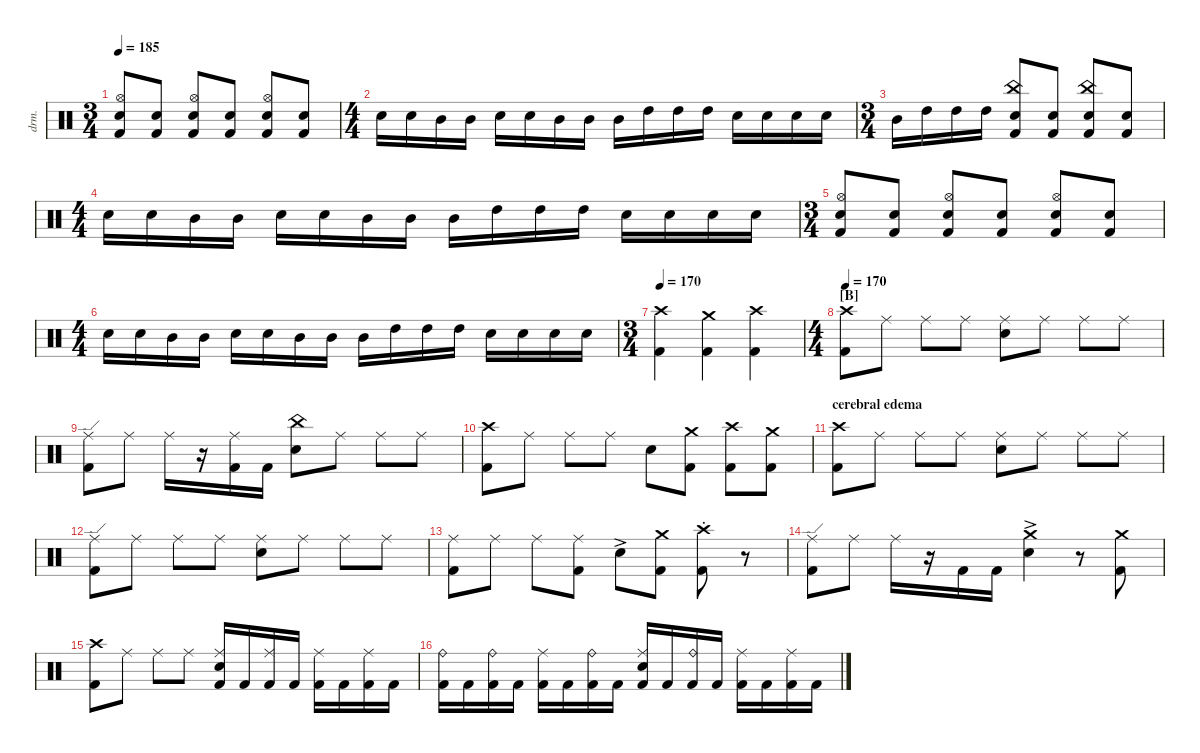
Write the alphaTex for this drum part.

\defaultSystemsLayout 4
\hideDynamics
\bracketExtendMode nobrackets
\otherSystemsTrackNameOrientation horizontal
\track ("Drumkit" "drm.") {instrument percussion}
\staff {score}
\articulation defaults
\ts (3 4)
\beaming (8 2 2 2)
\tempo 185
\clef neutral
\ks c
("Kick (hit) 2" "Hi-Hat (open)" "Snare (hit) 2").8{dy mf beam Up} ("Kick (hit) 2" "Snare (hit) 2").8{beam Up} ("Kick (hit) 2" "Hi-Hat (open)" "Snare (hit) 2").8{beam Up} ("Kick (hit) 2" "Snare (hit) 2").8{beam Up} ("Kick (hit) 2" "Hi-Hat (open)" "Snare (hit) 2").8{beam Up} ("Kick (hit) 2" "Snare (hit) 2").8{beam Up} |
\ts (4 4)
\beaming (8 2 2 2 2)
"Snare (hit) 2".16{beam Down} "Snare (hit) 2".16{beam Down} "Mid Tom (hit)".16{beam Down} "Mid Tom (hit)".16{beam Down} "Snare (hit) 2".16{beam Down} "Snare (hit) 2".16{beam Down} "Mid Tom (hit)".16{beam Down} "Mid Tom (hit)".16{beam Down} "Mid Tom (hit)".16{beam Down} "High Tom (hit)".16{beam Down} "High Tom (hit)".16{beam Down} "High Tom (hit)".16{beam Down} "Snare (hit) 2".16{beam Down} "Snare (hit) 2".16{beam Down} "Snare (hit) 2".16{beam Down} "Snare (hit) 2".16{beam Down} |
\ts (3 4)
\beaming (8 2 2 2)
"Mid Tom (hit)".16{beam Down} "High Tom (hit)".16{beam Down} "High Tom (hit)".16{beam Down} "High Tom (hit)".16{beam Down} ("Kick (hit) 2" "Snare (hit) 2" "China (hit)").8{beam Up} ("Kick (hit) 2" "Snare (hit) 2").8{beam Up} ("Kick (hit) 2" "Snare (hit) 2" "China (hit)").8{beam Up} ("Kick (hit) 2" "Snare (hit) 2").8{beam Up} |
\ts (4 4)
\beaming (8 2 2 2 2)
"Snare (hit) 2".16{beam Down} "Snare (hit) 2".16{beam Down} "Mid Tom (hit)".16{beam Down} "Mid Tom (hit)".16{beam Down} "Snare (hit) 2".16{beam Down} "Snare (hit) 2".16{beam Down} "Mid Tom (hit)".16{beam Down} "Mid Tom (hit)".16{beam Down} "Mid Tom (hit)".16{beam Down} "High Tom (hit)".16{beam Down} "High Tom (hit)".16{beam Down} "High Tom (hit)".16{beam Down} "Snare (hit) 2".16{beam Down} "Snare (hit) 2".16{beam Down} "Snare (hit) 2".16{beam Down} "Snare (hit) 2".16{beam Down} |
\ts (3 4)
\beaming (8 2 2 2)
("Kick (hit) 2" "Hi-Hat (open)" "Snare (hit) 2").8{beam Up} ("Kick (hit) 2" "Snare (hit) 2").8{beam Up} ("Kick (hit) 2" "Hi-Hat (open)" "Snare (hit) 2").8{beam Up} ("Kick (hit) 2" "Snare (hit) 2").8{beam Up} ("Kick (hit) 2" "Hi-Hat (open)" "Snare (hit) 2").8{beam Up} ("Kick (hit) 2" "Snare (hit) 2").8{beam Up} |
\ts (4 4)
\beaming (8 2 2 2 2)
"Snare (hit) 2".16{beam Down} "Snare (hit) 2".16{beam Down} "Mid Tom (hit)".16{beam Down} "Mid Tom (hit)".16{beam Down} "Snare (hit) 2".16{beam Down} "Snare (hit) 2".16{beam Down} "Mid Tom (hit)".16{beam Down} "Mid Tom (hit)".16{beam Down} "Mid Tom (hit)".16{beam Down} "High Tom (hit)".16{beam Down} "High Tom (hit)".16{beam Down} "High Tom (hit)".16{beam Down} "Snare (hit) 2".16{beam Down} "Snare (hit) 2".16{beam Down} "Snare (hit) 2".16{beam Down} "Snare (hit) 2".16{beam Down} |
\ts (3 4)
\beaming (8 2 2 2)
\tempo 170
("Kick (hit) 2" "Crash high (hit)").4{beam Down} ("Kick (hit) 2" "Crash medium (hit)").4{beam Down} ("Kick (hit) 2" "Crash high (hit)").4{beam Down} |
\ts (4 4)
\beaming (8 2 2 2 2)
\section ("B" "")
\tempo 170
("Kick (hit) 2" "Crash high (hit)").8{beam Down} "Ride (middle)".8{beam Down} "Ride (middle)".8{beam Down} "Ride (middle)".8{beam Down} ("Snare (hit) 2" "Ride (middle)").8{beam Down} "Ride (middle)".8{beam Down} "Ride (middle)".8{beam Down} "Ride (middle)".8{beam Down} |
("Kick (hit) 2" "Ride (edge)").8{beam Down} "Ride (middle)".8{beam Down} "Ride (middle)".16{beam Down} r.16{beam Down} ("Kick (hit) 2" "Ride (middle)").16{beam Down} "Kick (hit) 2".16{beam Down} ("Snare (hit) 2" "China (hit)").8{beam Down} "Ride (middle)".8{beam Down} "Ride (middle)".8{beam Down} "Ride (middle)".8{beam Down} |
("Kick (hit) 2" "Crash high (hit)").8{beam Down} "Ride (middle)".8{beam Down} "Ride (middle)".8{beam Down} "Ride (middle)".8{beam Down} "Snare (hit) 2".8{beam Down} ("Kick (hit) 2" "Crash medium (hit)").8{beam Down} ("Kick (hit) 2" "Crash high (hit)").8{beam Down} ("Kick (hit) 2" "Crash medium (hit)").8{beam Down} |
\section ("" "cerebral edema")
("Kick (hit) 2" "Crash high (hit)").8{beam Down} "Ride (middle)".8{beam Down} "Ride (middle)".8{beam Down} "Ride (middle)".8{beam Down} ("Snare (hit) 2" "Ride (middle)").8{beam Down} "Ride (middle)".8{beam Down} "Ride (middle)".8{beam Down} "Ride (middle)".8{beam Down} |
("Kick (hit) 2" "Ride (edge)").8{beam Down} "Ride (middle)".8{beam Down} "Ride (middle)".8{beam Down} "Ride (middle)".8{beam Down} ("Snare (hit) 2" "Ride (middle)").8{beam Down} "Ride (middle)".8{beam Down} "Ride (middle)".8{beam Down} "Ride (middle)".8{beam Down} |
("Kick (hit) 2" "Ride (middle)").8{beam Down} "Ride (middle)".8{beam Down} "Ride (middle)".8{beam Down} ("Ride (middle)" "Kick (hit) 2").8{beam Down} "Snare (hit) 2"{ac}.8{beam Down} ("Kick (hit) 2" "Crash medium (hit)").8{beam Down} ("Kick (hit) 2" "Crash high (choke)").8{beam Down} r.8{beam Down} |
("Kick (hit) 2" "Ride (edge)").8{beam Down} "Ride (middle)".8{beam Down} "Ride (middle)".16{beam Down} r.16{beam Down} "Kick (hit) 2".16{beam Down} "Kick (hit) 2".16{beam Down} ("Crash medium (hit)" "Snare (hit) 2"{ac}).4{beam Down} r.8{beam Down} ("Kick (hit) 2" "Crash medium (hit)").8{beam Down} |
("Kick (hit) 2" "Crash high (hit)").8{beam Down} "Ride (middle)".8{beam Down} "Ride (middle)".8{beam Down} "Ride (middle)".8{beam Down} ("Kick (hit) 2" "Ride (middle)" "Snare (hit) 2").16{beam Up} "Kick (hit) 2".16{beam Up} ("Kick (hit) 2" "Ride (middle)").16{beam Up} "Kick (hit) 2".16{beam Up} ("Kick (hit) 2" "Ride (middle)").16{beam Down} "Kick (hit) 2".16{beam Down} ("Kick (hit) 2" "Ride (middle)").16{beam Down} "Kick (hit) 2".16{beam Down} |
("Kick (hit) 2" "Ride (bell)").16{beam Down} "Kick (hit) 2".16{beam Down} ("Kick (hit) 2" "Ride (bell)").16{beam Down} "Kick (hit) 2".16{beam Down} ("Kick (hit) 2" "Ride (middle)").16{beam Down} "Kick (hit) 2".16{beam Down} ("Kick (hit) 2" "Ride (bell)").16{beam Down} "Kick (hit) 2".16{beam Down} ("Kick (hit) 2" "Ride (middle)" "Snare (hit) 2").16{beam Up} "Kick (hit) 2".16{beam Up} ("Kick (hit) 2" "Ride (bell)").16{beam Up} "Kick (hit) 2".16{beam Up} ("Kick (hit) 2" "Ride (middle)").16{beam Down} "Kick (hit) 2".16{beam Down} ("Kick (hit) 2" "Ride (middle)").16{beam Down} "Kick (hit) 2".16{beam Down}
